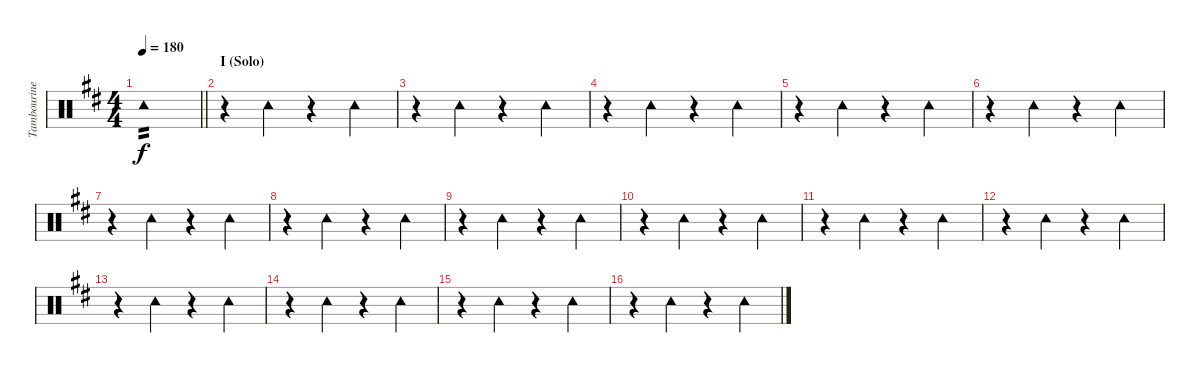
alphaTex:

\track ("Tambourine" "Tambourine") {instrument percussion}
\staff {score}
\articulation defaults
\ts (4 4)
\tempo 180
\clef neutral
\barLineRight lightlight
\ks d "Tambourine (hit)".1{tp 2 dy f}
|
\section ("" "I (Solo)")
r.4 "Tambourine (hit)".4 r.4 "Tambourine (hit)".4 |
r.4 "Tambourine (hit)".4 r.4 "Tambourine (hit)".4 |
r.4 "Tambourine (hit)".4 r.4 "Tambourine (hit)".4 |
r.4 "Tambourine (hit)".4 r.4 "Tambourine (hit)".4 |
r.4 "Tambourine (hit)".4 r.4 "Tambourine (hit)".4 |
r.4 "Tambourine (hit)".4 r.4 "Tambourine (hit)".4 |
r.4 "Tambourine (hit)".4 r.4 "Tambourine (hit)".4 |
r.4 "Tambourine (hit)".4 r.4 "Tambourine (hit)".4 |
r.4 "Tambourine (hit)".4 r.4 "Tambourine (hit)".4 |
r.4 "Tambourine (hit)".4 r.4 "Tambourine (hit)".4 |
r.4 "Tambourine (hit)".4 r.4 "Tambourine (hit)".4 |
r.4 "Tambourine (hit)".4 r.4 "Tambourine (hit)".4 |
r.4 "Tambourine (hit)".4 r.4 "Tambourine (hit)".4 |
r.4 "Tambourine (hit)".4 r.4 "Tambourine (hit)".4 |
r.4 "Tambourine (hit)".4 r.4 "Tambourine (hit)".4
